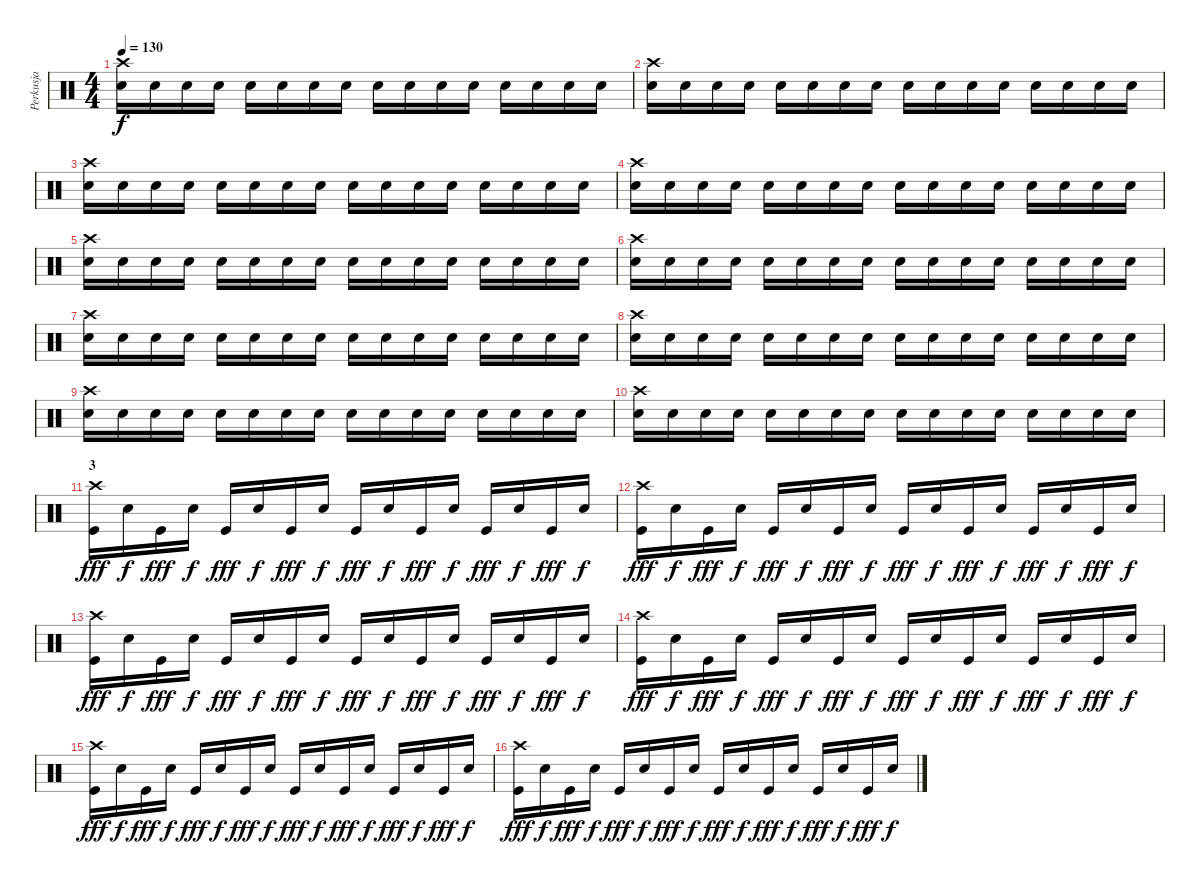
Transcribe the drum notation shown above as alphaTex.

\track ("Perkusja" "Perkusja") {instrument percussion}
\staff {score}
\articulation defaults
\ts (4 4)
\tempo 130
\clef neutral
\ks c
("Crash high (hit)" "Snare (hit) 2").16{dy f} "Snare (hit) 2".16 "Snare (hit) 2".16 "Snare (hit) 2".16 "Snare (hit) 2".16 "Snare (hit) 2".16 "Snare (hit) 2".16 "Snare (hit) 2".16 "Snare (hit) 2".16 "Snare (hit) 2".16 "Snare (hit) 2".16 "Snare (hit) 2".16 "Snare (hit) 2".16 "Snare (hit) 2".16 "Snare (hit) 2".16 "Snare (hit) 2".16 |
("Crash high (hit)" "Snare (hit) 2").16 "Snare (hit) 2".16 "Snare (hit) 2".16 "Snare (hit) 2".16 "Snare (hit) 2".16 "Snare (hit) 2".16 "Snare (hit) 2".16 "Snare (hit) 2".16 "Snare (hit) 2".16 "Snare (hit) 2".16 "Snare (hit) 2".16 "Snare (hit) 2".16 "Snare (hit) 2".16 "Snare (hit) 2".16 "Snare (hit) 2".16 "Snare (hit) 2".16 |
("Crash high (hit)" "Snare (hit) 2").16 "Snare (hit) 2".16 "Snare (hit) 2".16 "Snare (hit) 2".16 "Snare (hit) 2".16 "Snare (hit) 2".16 "Snare (hit) 2".16 "Snare (hit) 2".16 "Snare (hit) 2".16 "Snare (hit) 2".16 "Snare (hit) 2".16 "Snare (hit) 2".16 "Snare (hit) 2".16 "Snare (hit) 2".16 "Snare (hit) 2".16 "Snare (hit) 2".16 |
("Crash high (hit)" "Snare (hit) 2").16 "Snare (hit) 2".16 "Snare (hit) 2".16 "Snare (hit) 2".16 "Snare (hit) 2".16 "Snare (hit) 2".16 "Snare (hit) 2".16 "Snare (hit) 2".16 "Snare (hit) 2".16 "Snare (hit) 2".16 "Snare (hit) 2".16 "Snare (hit) 2".16 "Snare (hit) 2".16 "Snare (hit) 2".16 "Snare (hit) 2".16 "Snare (hit) 2".16 |
("Crash high (hit)" "Snare (hit) 2").16 "Snare (hit) 2".16 "Snare (hit) 2".16 "Snare (hit) 2".16 "Snare (hit) 2".16 "Snare (hit) 2".16 "Snare (hit) 2".16 "Snare (hit) 2".16 "Snare (hit) 2".16 "Snare (hit) 2".16 "Snare (hit) 2".16 "Snare (hit) 2".16 "Snare (hit) 2".16 "Snare (hit) 2".16 "Snare (hit) 2".16 "Snare (hit) 2".16 |
("Crash high (hit)" "Snare (hit) 2").16 "Snare (hit) 2".16 "Snare (hit) 2".16 "Snare (hit) 2".16 "Snare (hit) 2".16 "Snare (hit) 2".16 "Snare (hit) 2".16 "Snare (hit) 2".16 "Snare (hit) 2".16 "Snare (hit) 2".16 "Snare (hit) 2".16 "Snare (hit) 2".16 "Snare (hit) 2".16 "Snare (hit) 2".16 "Snare (hit) 2".16 "Snare (hit) 2".16 |
("Crash high (hit)" "Snare (hit) 2").16 "Snare (hit) 2".16 "Snare (hit) 2".16 "Snare (hit) 2".16 "Snare (hit) 2".16 "Snare (hit) 2".16 "Snare (hit) 2".16 "Snare (hit) 2".16 "Snare (hit) 2".16 "Snare (hit) 2".16 "Snare (hit) 2".16 "Snare (hit) 2".16 "Snare (hit) 2".16 "Snare (hit) 2".16 "Snare (hit) 2".16 "Snare (hit) 2".16 |
("Crash high (hit)" "Snare (hit) 2").16 "Snare (hit) 2".16 "Snare (hit) 2".16 "Snare (hit) 2".16 "Snare (hit) 2".16 "Snare (hit) 2".16 "Snare (hit) 2".16 "Snare (hit) 2".16 "Snare (hit) 2".16 "Snare (hit) 2".16 "Snare (hit) 2".16 "Snare (hit) 2".16 "Snare (hit) 2".16 "Snare (hit) 2".16 "Snare (hit) 2".16 "Snare (hit) 2".16 |
("Crash high (hit)" "Snare (hit) 2").16 "Snare (hit) 2".16 "Snare (hit) 2".16 "Snare (hit) 2".16 "Snare (hit) 2".16 "Snare (hit) 2".16 "Snare (hit) 2".16 "Snare (hit) 2".16 "Snare (hit) 2".16 "Snare (hit) 2".16 "Snare (hit) 2".16 "Snare (hit) 2".16 "Snare (hit) 2".16 "Snare (hit) 2".16 "Snare (hit) 2".16 "Snare (hit) 2".16 |
("Crash high (hit)" "Snare (hit) 2").16 "Snare (hit) 2".16 "Snare (hit) 2".16 "Snare (hit) 2".16 "Snare (hit) 2".16 "Snare (hit) 2".16 "Snare (hit) 2".16 "Snare (hit) 2".16 "Snare (hit) 2".16 "Snare (hit) 2".16 "Snare (hit) 2".16 "Snare (hit) 2".16 "Snare (hit) 2".16 "Snare (hit) 2".16 "Snare (hit) 2".16 "Snare (hit) 2".16 |
\section ("" "3")
("Crash high (hit)" "Kick (hit)").16{dy fff} "Snare (hit) 2".16{dy f} "Kick (hit)".16{dy fff} "Snare (hit) 2".16{dy f} "Kick (hit)".16{dy fff} "Snare (hit) 2".16{dy f} "Kick (hit)".16{dy fff} "Snare (hit) 2".16{dy f} "Kick (hit)".16{dy fff} "Snare (hit) 2".16{dy f} "Kick (hit)".16{dy fff} "Snare (hit) 2".16{dy f} "Kick (hit)".16{dy fff} "Snare (hit) 2".16{dy f} "Kick (hit)".16{dy fff} "Snare (hit) 2".16{dy f} |
("Crash high (hit)" "Kick (hit)").16{dy fff} "Snare (hit) 2".16{dy f} "Kick (hit)".16{dy fff} "Snare (hit) 2".16{dy f} "Kick (hit)".16{dy fff} "Snare (hit) 2".16{dy f} "Kick (hit)".16{dy fff} "Snare (hit) 2".16{dy f} "Kick (hit)".16{dy fff} "Snare (hit) 2".16{dy f} "Kick (hit)".16{dy fff} "Snare (hit) 2".16{dy f} "Kick (hit)".16{dy fff} "Snare (hit) 2".16{dy f} "Kick (hit)".16{dy fff} "Snare (hit) 2".16{dy f} |
("Crash high (hit)" "Kick (hit)").16{dy fff} "Snare (hit) 2".16{dy f} "Kick (hit)".16{dy fff} "Snare (hit) 2".16{dy f} "Kick (hit)".16{dy fff} "Snare (hit) 2".16{dy f} "Kick (hit)".16{dy fff} "Snare (hit) 2".16{dy f} "Kick (hit)".16{dy fff} "Snare (hit) 2".16{dy f} "Kick (hit)".16{dy fff} "Snare (hit) 2".16{dy f} "Kick (hit)".16{dy fff} "Snare (hit) 2".16{dy f} "Kick (hit)".16{dy fff} "Snare (hit) 2".16{dy f} |
("Crash high (hit)" "Kick (hit)").16{dy fff} "Snare (hit) 2".16{dy f} "Kick (hit)".16{dy fff} "Snare (hit) 2".16{dy f} "Kick (hit)".16{dy fff} "Snare (hit) 2".16{dy f} "Kick (hit)".16{dy fff} "Snare (hit) 2".16{dy f} "Kick (hit)".16{dy fff} "Snare (hit) 2".16{dy f} "Kick (hit)".16{dy fff} "Snare (hit) 2".16{dy f} "Kick (hit)".16{dy fff} "Snare (hit) 2".16{dy f} "Kick (hit)".16{dy fff} "Snare (hit) 2".16{dy f} |
("Crash high (hit)" "Kick (hit)").16{dy fff} "Snare (hit) 2".16{dy f} "Kick (hit)".16{dy fff} "Snare (hit) 2".16{dy f} "Kick (hit)".16{dy fff} "Snare (hit) 2".16{dy f} "Kick (hit)".16{dy fff} "Snare (hit) 2".16{dy f} "Kick (hit)".16{dy fff} "Snare (hit) 2".16{dy f} "Kick (hit)".16{dy fff} "Snare (hit) 2".16{dy f} "Kick (hit)".16{dy fff} "Snare (hit) 2".16{dy f} "Kick (hit)".16{dy fff} "Snare (hit) 2".16{dy f} |
("Crash high (hit)" "Kick (hit)").16{dy fff} "Snare (hit) 2".16{dy f} "Kick (hit)".16{dy fff} "Snare (hit) 2".16{dy f} "Kick (hit)".16{dy fff} "Snare (hit) 2".16{dy f} "Kick (hit)".16{dy fff} "Snare (hit) 2".16{dy f} "Kick (hit)".16{dy fff} "Snare (hit) 2".16{dy f} "Kick (hit)".16{dy fff} "Snare (hit) 2".16{dy f} "Kick (hit)".16{dy fff} "Snare (hit) 2".16{dy f} "Kick (hit)".16{dy fff} "Snare (hit) 2".16{dy f}
